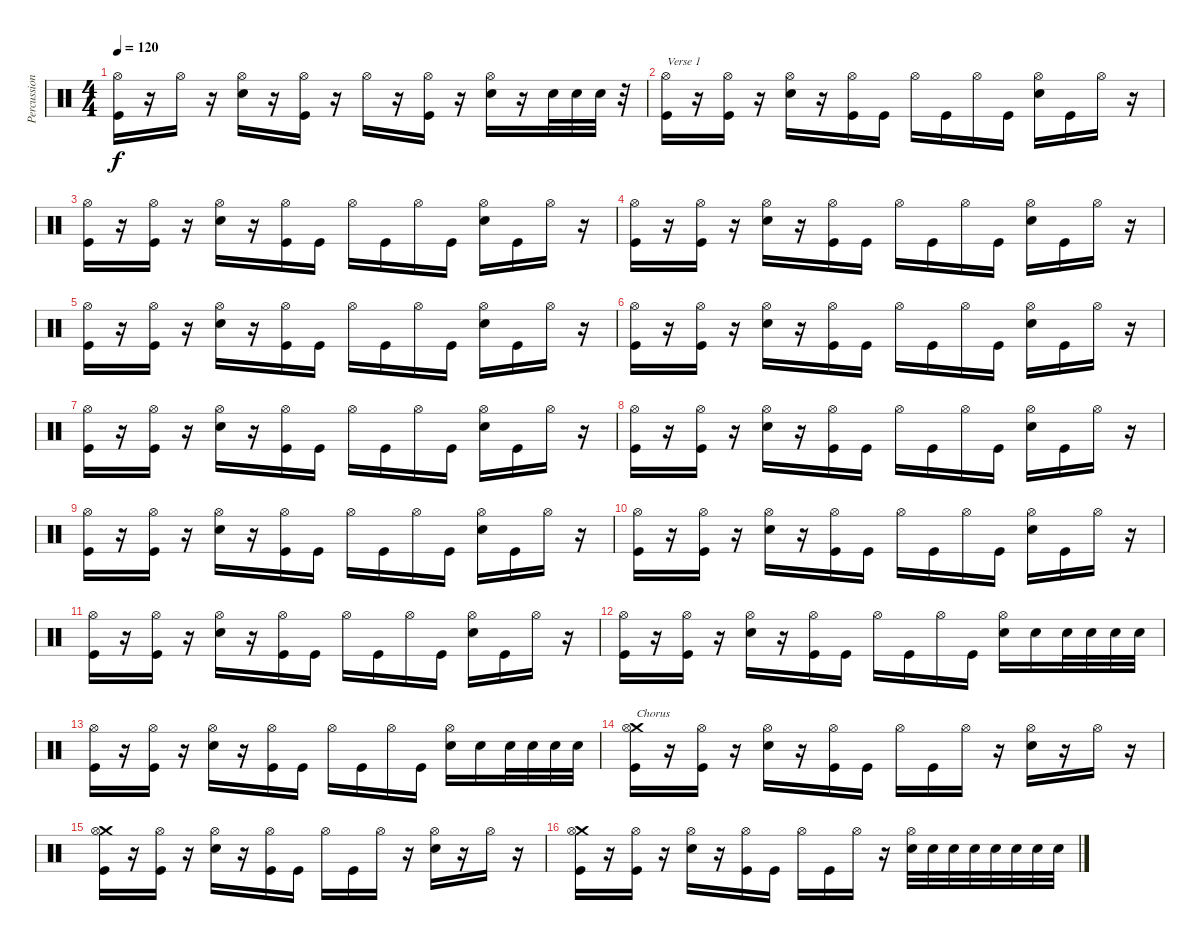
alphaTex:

\track ("Percussion" "Percussion") {instrument percussion}
\staff {score}
\articulation defaults
\ts (4 4)
\tempo 120
\clef neutral
\ks c
("Hi-Hat (open)" "Kick (hit)").16{dy f} r.16 "Hi-Hat (open)".16 r.16 ("Hi-Hat (open)" "Electric Snare (hit)").16 r.16 ("Hi-Hat (open)" "Kick (hit)").16 r.16 "Hi-Hat (open)".16 r.16 ("Hi-Hat (open)" "Kick (hit)").16 r.16 ("Hi-Hat (open)" "Electric Snare (hit)").16 r.16 "Electric Snare (hit)".32 "Electric Snare (hit)".32 "Electric Snare (hit)".32 r.32 |
("Hi-Hat (open)" "Kick (hit)").16{txt "Verse 1"} r.16 ("Hi-Hat (open)" "Kick (hit)").16 r.16 ("Hi-Hat (open)" "Electric Snare (hit)").16 r.16 ("Hi-Hat (open)" "Kick (hit)").16 "Kick (hit)".16 "Hi-Hat (open)".16 "Kick (hit)".16 "Hi-Hat (open)".16 "Kick (hit)".16 ("Hi-Hat (open)" "Electric Snare (hit)").16 "Kick (hit)".16 "Hi-Hat (open)".16 r.16 |
("Hi-Hat (open)" "Kick (hit)").16 r.16 ("Hi-Hat (open)" "Kick (hit)").16 r.16 ("Hi-Hat (open)" "Electric Snare (hit)").16 r.16 ("Hi-Hat (open)" "Kick (hit)").16 "Kick (hit)".16 "Hi-Hat (open)".16 "Kick (hit)".16 "Hi-Hat (open)".16 "Kick (hit)".16 ("Hi-Hat (open)" "Electric Snare (hit)").16 "Kick (hit)".16 "Hi-Hat (open)".16 r.16 |
("Hi-Hat (open)" "Kick (hit)").16 r.16 ("Hi-Hat (open)" "Kick (hit)").16 r.16 ("Hi-Hat (open)" "Electric Snare (hit)").16 r.16 ("Hi-Hat (open)" "Kick (hit)").16 "Kick (hit)".16 "Hi-Hat (open)".16 "Kick (hit)".16 "Hi-Hat (open)".16 "Kick (hit)".16 ("Hi-Hat (open)" "Electric Snare (hit)").16 "Kick (hit)".16 "Hi-Hat (open)".16 r.16 |
("Hi-Hat (open)" "Kick (hit)").16 r.16 ("Hi-Hat (open)" "Kick (hit)").16 r.16 ("Hi-Hat (open)" "Electric Snare (hit)").16 r.16 ("Hi-Hat (open)" "Kick (hit)").16 "Kick (hit)".16 "Hi-Hat (open)".16 "Kick (hit)".16 "Hi-Hat (open)".16 "Kick (hit)".16 ("Hi-Hat (open)" "Electric Snare (hit)").16 "Kick (hit)".16 "Hi-Hat (open)".16 r.16 |
("Hi-Hat (open)" "Kick (hit)").16 r.16 ("Hi-Hat (open)" "Kick (hit)").16 r.16 ("Hi-Hat (open)" "Electric Snare (hit)").16 r.16 ("Hi-Hat (open)" "Kick (hit)").16 "Kick (hit)".16 "Hi-Hat (open)".16 "Kick (hit)".16 "Hi-Hat (open)".16 "Kick (hit)".16 ("Hi-Hat (open)" "Electric Snare (hit)").16 "Kick (hit)".16 "Hi-Hat (open)".16 r.16 |
("Hi-Hat (open)" "Kick (hit)").16 r.16 ("Hi-Hat (open)" "Kick (hit)").16 r.16 ("Hi-Hat (open)" "Electric Snare (hit)").16 r.16 ("Hi-Hat (open)" "Kick (hit)").16 "Kick (hit)".16 "Hi-Hat (open)".16 "Kick (hit)".16 "Hi-Hat (open)".16 "Kick (hit)".16 ("Hi-Hat (open)" "Electric Snare (hit)").16 "Kick (hit)".16 "Hi-Hat (open)".16 r.16 |
("Hi-Hat (open)" "Kick (hit)").16 r.16 ("Hi-Hat (open)" "Kick (hit)").16 r.16 ("Hi-Hat (open)" "Electric Snare (hit)").16 r.16 ("Hi-Hat (open)" "Kick (hit)").16 "Kick (hit)".16 "Hi-Hat (open)".16 "Kick (hit)".16 "Hi-Hat (open)".16 "Kick (hit)".16 ("Hi-Hat (open)" "Electric Snare (hit)").16 "Kick (hit)".16 "Hi-Hat (open)".16 r.16 |
("Hi-Hat (open)" "Kick (hit)").16 r.16 ("Hi-Hat (open)" "Kick (hit)").16 r.16 ("Hi-Hat (open)" "Electric Snare (hit)").16 r.16 ("Hi-Hat (open)" "Kick (hit)").16 "Kick (hit)".16 "Hi-Hat (open)".16 "Kick (hit)".16 "Hi-Hat (open)".16 "Kick (hit)".16 ("Hi-Hat (open)" "Electric Snare (hit)").16 "Kick (hit)".16 "Hi-Hat (open)".16 r.16 |
("Hi-Hat (open)" "Kick (hit)").16 r.16 ("Hi-Hat (open)" "Kick (hit)").16 r.16 ("Hi-Hat (open)" "Electric Snare (hit)").16 r.16 ("Hi-Hat (open)" "Kick (hit)").16 "Kick (hit)".16 "Hi-Hat (open)".16 "Kick (hit)".16 "Hi-Hat (open)".16 "Kick (hit)".16 ("Hi-Hat (open)" "Electric Snare (hit)").16 "Kick (hit)".16 "Hi-Hat (open)".16 r.16 |
("Hi-Hat (open)" "Kick (hit)").16 r.16 ("Hi-Hat (open)" "Kick (hit)").16 r.16 ("Hi-Hat (open)" "Electric Snare (hit)").16 r.16 ("Hi-Hat (open)" "Kick (hit)").16 "Kick (hit)".16 "Hi-Hat (open)".16 "Kick (hit)".16 "Hi-Hat (open)".16 "Kick (hit)".16 ("Hi-Hat (open)" "Electric Snare (hit)").16 "Kick (hit)".16 "Hi-Hat (open)".16 r.16 |
("Hi-Hat (open)" "Kick (hit)").16 r.16 ("Hi-Hat (open)" "Kick (hit)").16 r.16 ("Hi-Hat (open)" "Electric Snare (hit)").16 r.16 ("Hi-Hat (open)" "Kick (hit)").16 "Kick (hit)".16 "Hi-Hat (open)".16 "Kick (hit)".16 "Hi-Hat (open)".16 "Kick (hit)".16 ("Hi-Hat (open)" "Electric Snare (hit)").16 "Electric Snare (hit)".16 "Electric Snare (hit)".32 "Electric Snare (hit)".32 "Electric Snare (hit)".32 "Electric Snare (hit)".32 |
("Hi-Hat (open)" "Kick (hit)").16 r.16 ("Hi-Hat (open)" "Kick (hit)").16 r.16 ("Hi-Hat (open)" "Electric Snare (hit)").16 r.16 ("Hi-Hat (open)" "Kick (hit)").16 "Kick (hit)".16 "Hi-Hat (open)".16 "Kick (hit)".16 "Hi-Hat (open)".16 "Kick (hit)".16 ("Hi-Hat (open)" "Electric Snare (hit)").16 "Electric Snare (hit)".16 "Electric Snare (hit)".32 "Electric Snare (hit)".32 "Electric Snare (hit)".32 "Electric Snare (hit)".32 |
("Crash medium (hit)" "Hi-Hat (open)" "Kick (hit)").16{txt "Chorus"} r.16 ("Hi-Hat (open)" "Kick (hit)").16 r.16 ("Hi-Hat (open)" "Electric Snare (hit)").16 r.16 ("Hi-Hat (open)" "Kick (hit)").16 "Kick (hit)".16 "Hi-Hat (open)".16 "Kick (hit)".16 "Hi-Hat (open)".16 r.16 ("Hi-Hat (open)" "Electric Snare (hit)").16 r.16 "Hi-Hat (open)".16 r.16 |
("Crash medium (hit)" "Hi-Hat (open)" "Kick (hit)").16 r.16 ("Hi-Hat (open)" "Kick (hit)").16 r.16 ("Hi-Hat (open)" "Electric Snare (hit)").16 r.16 ("Hi-Hat (open)" "Kick (hit)").16 "Kick (hit)".16 "Hi-Hat (open)".16 "Kick (hit)".16 "Hi-Hat (open)".16 r.16 ("Hi-Hat (open)" "Electric Snare (hit)").16 r.16 "Hi-Hat (open)".16 r.16 |
("Crash medium (hit)" "Hi-Hat (open)" "Kick (hit)").16 r.16 ("Hi-Hat (open)" "Kick (hit)").16 r.16 ("Hi-Hat (open)" "Electric Snare (hit)").16 r.16 ("Hi-Hat (open)" "Kick (hit)").16 "Kick (hit)".16 "Hi-Hat (open)".16 "Kick (hit)".16 "Hi-Hat (open)".16 r.16 ("Hi-Hat (open)" "Electric Snare (hit)").32 "Electric Snare (hit)".32 "Electric Snare (hit)".32 "Electric Snare (hit)".32 "Electric Snare (hit)".32 "Electric Snare (hit)".32 "Electric Snare (hit)".32 "Electric Snare (hit)".32
